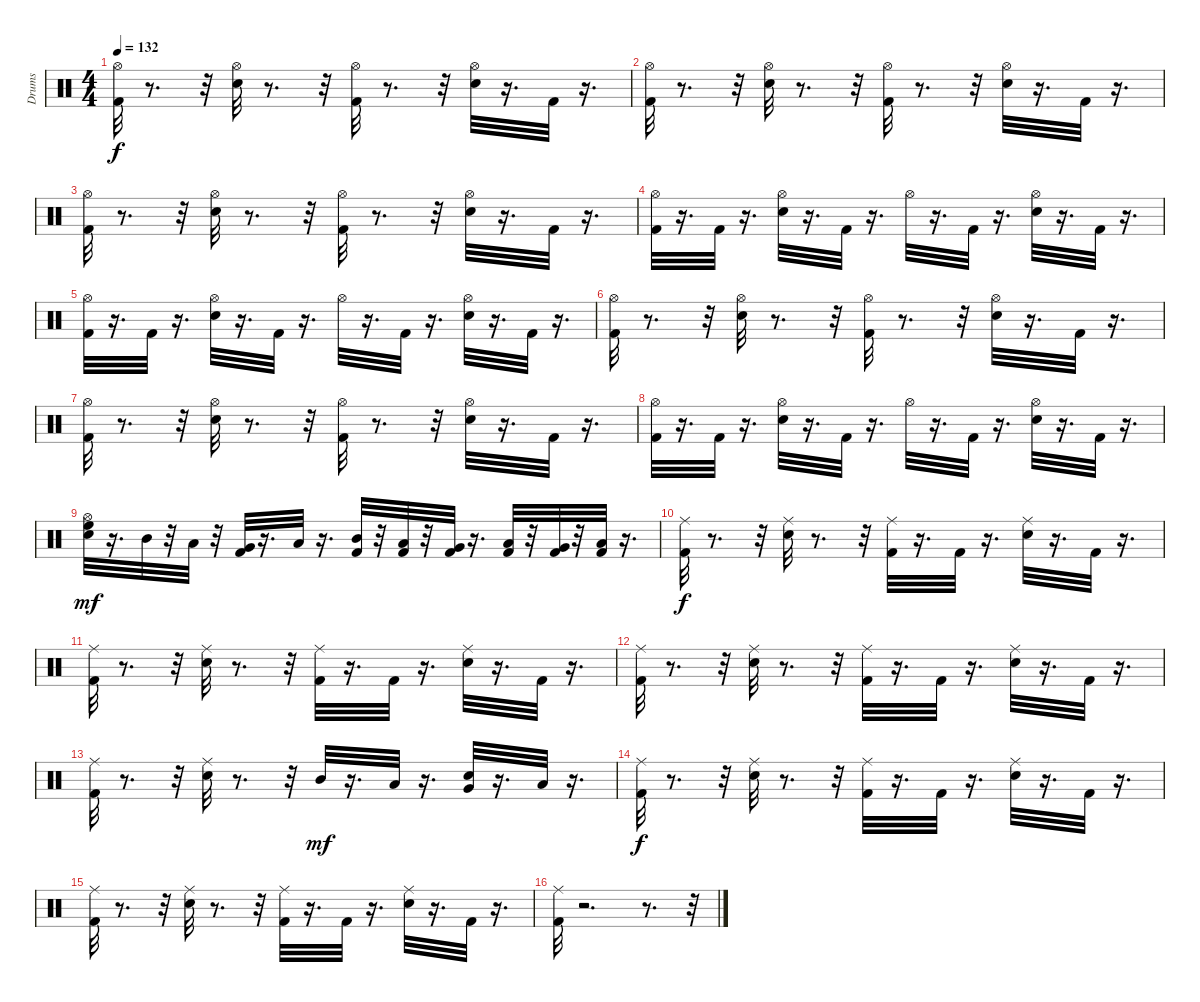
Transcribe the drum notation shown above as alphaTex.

\track ("Drums" "Drums") {instrument percussion}
\staff {score}
\articulation defaults
\ts (4 4)
\tempo 132
\clef neutral
\ks c
("Kick (hit) 2" "Hi-Hat (open)").32{dy f} r.8{d} r.32 ("Snare (hit) 2" "Hi-Hat (open)").32 r.8{d} r.32 ("Kick (hit) 2" "Hi-Hat (open)").32 r.8{d} r.32 ("Snare (hit) 2" "Hi-Hat (open)").32 r.16{d} "Kick (hit) 2".32 r.16{d} |
("Kick (hit) 2" "Hi-Hat (open)").32 r.8{d} r.32 ("Snare (hit) 2" "Hi-Hat (open)").32 r.8{d} r.32 ("Kick (hit) 2" "Hi-Hat (open)").32 r.8{d} r.32 ("Snare (hit) 2" "Hi-Hat (open)").32 r.16{d} "Kick (hit) 2".32 r.16{d} |
("Kick (hit) 2" "Hi-Hat (open)").32 r.8{d} r.32 ("Snare (hit) 2" "Hi-Hat (open)").32 r.8{d} r.32 ("Kick (hit) 2" "Hi-Hat (open)").32 r.8{d} r.32 ("Snare (hit) 2" "Hi-Hat (open)").32 r.16{d} "Kick (hit) 2".32 r.16{d} |
("Kick (hit) 2" "Hi-Hat (open)").32 r.16{d} "Kick (hit) 2".32 r.16{d} ("Snare (hit) 2" "Hi-Hat (open)").32 r.16{d} "Kick (hit) 2".32 r.16{d} "Hi-Hat (open)".32 r.16{d} "Kick (hit) 2".32 r.16{d} ("Snare (hit) 2" "Hi-Hat (open)").32 r.16{d} "Kick (hit) 2".32 r.16{d} |
("Kick (hit) 2" "Hi-Hat (open)").32 r.16{d} "Kick (hit) 2".32 r.16{d} ("Snare (hit) 2" "Hi-Hat (open)").32 r.16{d} "Kick (hit) 2".32 r.16{d} "Hi-Hat (open)".32 r.16{d} "Kick (hit) 2".32 r.16{d} ("Snare (hit) 2" "Hi-Hat (open)").32 r.16{d} "Kick (hit) 2".32 r.16{d} |
("Kick (hit) 2" "Hi-Hat (open)").32 r.8{d} r.32 ("Snare (hit) 2" "Hi-Hat (open)").32 r.8{d} r.32 ("Kick (hit) 2" "Hi-Hat (open)").32 r.8{d} r.32 ("Snare (hit) 2" "Hi-Hat (open)").32 r.16{d} "Kick (hit) 2".32 r.16{d} |
("Kick (hit) 2" "Hi-Hat (open)").32 r.8{d} r.32 ("Snare (hit) 2" "Hi-Hat (open)").32 r.8{d} r.32 ("Kick (hit) 2" "Hi-Hat (open)").32 r.8{d} r.32 ("Snare (hit) 2" "Hi-Hat (open)").32 r.16{d} "Kick (hit) 2".32 r.16{d} |
("Kick (hit) 2" "Hi-Hat (open)").32 r.16{d} "Kick (hit) 2".32 r.16{d} ("Snare (hit) 2" "Hi-Hat (open)").32 r.16{d} "Kick (hit) 2".32 r.16{d} "Hi-Hat (open)".32 r.16{d} "Kick (hit) 2".32 r.16{d} ("Snare (hit) 2" "Hi-Hat (open)").32 r.16{d} "Kick (hit) 2".32 r.16{d} |
("Snare (hit) 2" "Hi-Hat (open)" "High Floor Tom (hit)").32{dy mf} r.16{d} "Mid Tom (hit)".32 r.32 "Low Tom (hit)".32 r.32 ("Kick (hit) 2" "Very Low Tom (hit)").32 r.16{d} "Low Tom (hit)".32 r.16{d} ("Kick (hit) 2" "Mid Tom (hit)").32 r.32 ("Kick (hit) 2" "Low Tom (hit)").32 r.32 ("Kick (hit) 2" "Very Low Tom (hit)").32 r.16{d} ("Kick (hit) 2" "Low Tom (hit)").32 r.32 ("Kick (hit) 2" "Very Low Tom (hit)").32 r.32 ("Kick (hit) 2" "Low Floor Tom (hit)").32 r.16{d} |
("Kick (hit) 2" "Ride (middle)").32{dy f} r.8{d} r.32 ("Snare (hit) 2" "Ride (middle)").32 r.8{d} r.32 ("Kick (hit) 2" "Ride (middle)").32 r.16{d} "Kick (hit) 2".32 r.16{d} ("Snare (hit) 2" "Ride (middle)").32 r.16{d} "Kick (hit) 2".32 r.16{d} |
("Kick (hit) 2" "Ride (middle)").32 r.8{d} r.32 ("Snare (hit) 2" "Ride (middle)").32 r.8{d} r.32 ("Kick (hit) 2" "Ride (middle)").32 r.16{d} "Kick (hit) 2".32 r.16{d} ("Snare (hit) 2" "Ride (middle)").32 r.16{d} "Kick (hit) 2".32 r.16{d} |
("Kick (hit) 2" "Ride (middle)").32 r.8{d} r.32 ("Snare (hit) 2" "Ride (middle)").32 r.8{d} r.32 ("Kick (hit) 2" "Ride (middle)").32 r.16{d} "Kick (hit) 2".32 r.16{d} ("Snare (hit) 2" "Ride (middle)").32 r.16{d} "Kick (hit) 2".32 r.16{d} |
("Kick (hit) 2" "Ride (middle)").32 r.8{d} r.32 ("Snare (hit) 2" "Ride (middle)").32 r.8{d} r.32 "Mid Tom (hit)".32{dy mf} r.16{d} "Low Tom (hit)".32 r.16{d} ("Snare (hit) 2" "Very Low Tom (hit)").32 r.16{d} "Low Floor Tom (hit)".32 r.16{d} |
("Kick (hit) 2" "Ride (middle)").32{dy f} r.8{d} r.32 ("Snare (hit) 2" "Ride (middle)").32 r.8{d} r.32 ("Kick (hit) 2" "Ride (middle)").32 r.16{d} "Kick (hit) 2".32 r.16{d} ("Snare (hit) 2" "Ride (middle)").32 r.16{d} "Kick (hit) 2".32 r.16{d} |
("Kick (hit) 2" "Ride (middle)").32 r.8{d} r.32 ("Snare (hit) 2" "Ride (middle)").32 r.8{d} r.32 ("Kick (hit) 2" "Ride (middle)").32 r.16{d} "Kick (hit) 2".32 r.16{d} ("Snare (hit) 2" "Ride (middle)").32 r.16{d} "Kick (hit) 2".32 r.16{d} |
("Kick (hit) 2" "Ride (middle)").32 r.2{d} r.8{d} r.32
